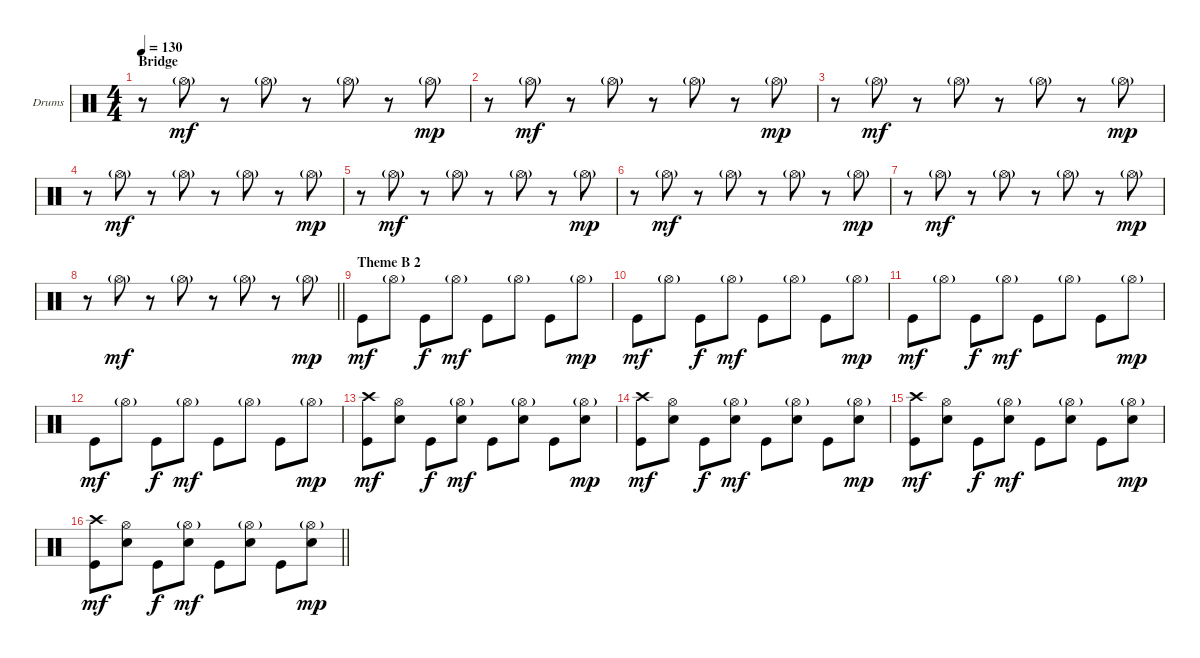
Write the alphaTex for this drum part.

\bracketExtendMode groupsimilarinstruments
\firstSystemTrackNameOrientation horizontal
\otherSystemsTrackNameOrientation horizontal
\track ("Drumkit" "Drums") {instrument percussion}
\staff {score}
\articulation defaults
\ts (4 4)
\section ("" "Bridge")
\tempo 130
\clef neutral
\ks c
r.8{dy mp} "Hi-Hat (open)"{g}.8{dy mf} r.8 "Hi-Hat (open)"{g}.8 r.8 "Hi-Hat (open)"{g}.8 r.8 "Hi-Hat (open)"{g}.8{dy mp} |
r.8 "Hi-Hat (open)"{g}.8{dy mf} r.8 "Hi-Hat (open)"{g}.8 r.8 "Hi-Hat (open)"{g}.8 r.8 "Hi-Hat (open)"{g}.8{dy mp} |
r.8 "Hi-Hat (open)"{g}.8{dy mf} r.8 "Hi-Hat (open)"{g}.8 r.8 "Hi-Hat (open)"{g}.8 r.8 "Hi-Hat (open)"{g}.8{dy mp} |
r.8 "Hi-Hat (open)"{g}.8{dy mf} r.8 "Hi-Hat (open)"{g}.8 r.8 "Hi-Hat (open)"{g}.8 r.8 "Hi-Hat (open)"{g}.8{dy mp} |
r.8 "Hi-Hat (open)"{g}.8{dy mf} r.8 "Hi-Hat (open)"{g}.8 r.8 "Hi-Hat (open)"{g}.8 r.8 "Hi-Hat (open)"{g}.8{dy mp} |
r.8 "Hi-Hat (open)"{g}.8{dy mf} r.8 "Hi-Hat (open)"{g}.8 r.8 "Hi-Hat (open)"{g}.8 r.8 "Hi-Hat (open)"{g}.8{dy mp} |
r.8 "Hi-Hat (open)"{g}.8{dy mf} r.8 "Hi-Hat (open)"{g}.8 r.8 "Hi-Hat (open)"{g}.8 r.8 "Hi-Hat (open)"{g}.8{dy mp} |
\barLineRight lightlight
r.8 "Hi-Hat (open)"{g}.8{dy mf} r.8 "Hi-Hat (open)"{g}.8 r.8 "Hi-Hat (open)"{g}.8 r.8 "Hi-Hat (open)"{g}.8{dy mp} |
\section ("" "Theme B 2")
"Kick (hit)".8{dy mf} "Hi-Hat (open)"{g}.8 "Kick (hit)".8{dy f} "Hi-Hat (open)"{g}.8{dy mf} "Kick (hit)".8 "Hi-Hat (open)"{g}.8 "Kick (hit)".8 "Hi-Hat (open)"{g}.8{dy mp} |
"Kick (hit)".8{dy mf} "Hi-Hat (open)"{g}.8 "Kick (hit)".8{dy f} "Hi-Hat (open)"{g}.8{dy mf} "Kick (hit)".8 "Hi-Hat (open)"{g}.8 "Kick (hit)".8 "Hi-Hat (open)"{g}.8{dy mp} |
"Kick (hit)".8{dy mf} "Hi-Hat (open)"{g}.8 "Kick (hit)".8{dy f} "Hi-Hat (open)"{g}.8{dy mf} "Kick (hit)".8 "Hi-Hat (open)"{g}.8 "Kick (hit)".8 "Hi-Hat (open)"{g}.8{dy mp} |
"Kick (hit)".8{dy mf} "Hi-Hat (open)"{g}.8 "Kick (hit)".8{dy f} "Hi-Hat (open)"{g}.8{dy mf} "Kick (hit)".8 "Hi-Hat (open)"{g}.8 "Kick (hit)".8 "Hi-Hat (open)"{g}.8{dy mp} |
("Kick (hit)" "Crash high (hit)").8{dy mf} ("Hi-Hat (open)" "Snare (hit) 2").8 "Kick (hit)".8{dy f} ("Hi-Hat (open)"{g} "Snare (hit) 2").8{dy mf} "Kick (hit)".8 ("Hi-Hat (open)"{g} "Snare (hit) 2").8 "Kick (hit)".8 ("Hi-Hat (open)"{g} "Snare (hit) 2").8{dy mp} |
("Kick (hit)" "Crash high (hit)").8{dy mf} ("Hi-Hat (open)" "Snare (hit) 2").8 "Kick (hit)".8{dy f} ("Hi-Hat (open)"{g} "Snare (hit) 2").8{dy mf} "Kick (hit)".8 ("Hi-Hat (open)"{g} "Snare (hit) 2").8 "Kick (hit)".8 ("Hi-Hat (open)"{g} "Snare (hit) 2").8{dy mp} |
("Kick (hit)" "Crash high (hit)").8{dy mf} ("Hi-Hat (open)" "Snare (hit) 2").8 "Kick (hit)".8{dy f} ("Hi-Hat (open)"{g} "Snare (hit) 2").8{dy mf} "Kick (hit)".8 ("Hi-Hat (open)"{g} "Snare (hit) 2").8 "Kick (hit)".8 ("Hi-Hat (open)"{g} "Snare (hit) 2").8{dy mp} |
\barLineRight lightlight
("Kick (hit)" "Crash high (hit)").8{dy mf} ("Hi-Hat (open)" "Snare (hit) 2").8 "Kick (hit)".8{dy f} ("Hi-Hat (open)"{g} "Snare (hit) 2").8{dy mf} "Kick (hit)".8 ("Hi-Hat (open)"{g} "Snare (hit) 2").8 "Kick (hit)".8 ("Hi-Hat (open)"{g} "Snare (hit) 2").8{dy mp}
